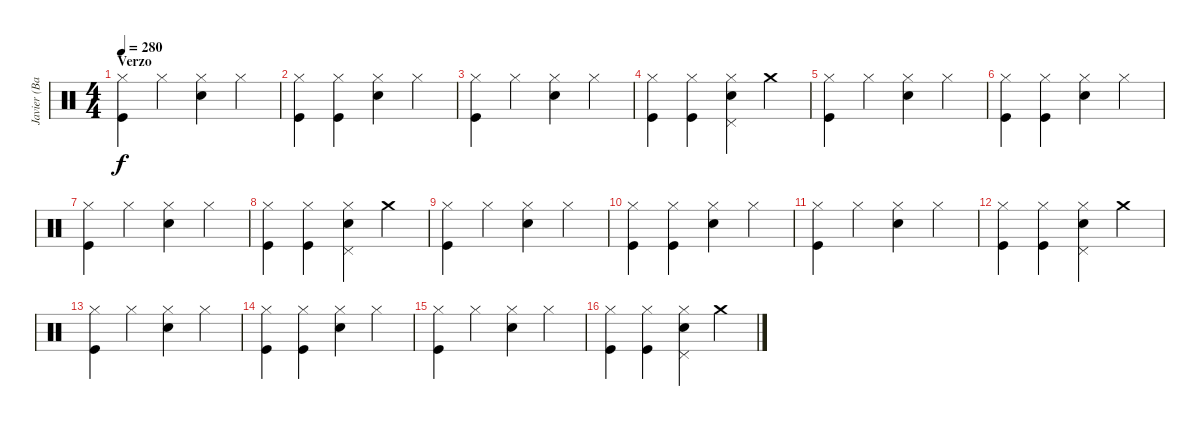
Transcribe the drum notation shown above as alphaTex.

\track ("Javier (Bateria)" "Javier (Ba") {instrument percussion}
\staff {score}
\articulation defaults
\ts (4 4)
\section ("" "Verzo")
\tempo 280
\clef neutral
\ks c
("Hi-Hat (closed)" "Kick (hit)").4{dy f} "Hi-Hat (closed)".4 ("Hi-Hat (closed)" "Snare (hit) 2").4 "Hi-Hat (closed)".4 |
("Hi-Hat (closed)" "Kick (hit)").4 ("Hi-Hat (closed)" "Kick (hit)").4 ("Hi-Hat (closed)" "Snare (hit) 2").4 "Hi-Hat (closed)".4 |
("Hi-Hat (closed)" "Kick (hit)").4 "Hi-Hat (closed)".4 ("Hi-Hat (closed)" "Snare (hit) 2").4 "Hi-Hat (closed)".4 |
("Hi-Hat (closed)" "Kick (hit)").4 ("Hi-Hat (closed)" "Kick (hit)").4 ("Hi-Hat (closed)" "Pedal Hi-Hat (hit)" "Snare (hit) 2").4 "Crash medium (hit)".4 |
("Hi-Hat (closed)" "Kick (hit)").4 "Hi-Hat (closed)".4 ("Hi-Hat (closed)" "Snare (hit) 2").4 "Hi-Hat (closed)".4 |
("Hi-Hat (closed)" "Kick (hit)").4 ("Hi-Hat (closed)" "Kick (hit)").4 ("Hi-Hat (closed)" "Snare (hit) 2").4 "Hi-Hat (closed)".4 |
("Hi-Hat (closed)" "Kick (hit)").4 "Hi-Hat (closed)".4 ("Hi-Hat (closed)" "Snare (hit) 2").4 "Hi-Hat (closed)".4 |
("Hi-Hat (closed)" "Kick (hit)").4 ("Hi-Hat (closed)" "Kick (hit)").4 ("Hi-Hat (closed)" "Pedal Hi-Hat (hit)" "Snare (hit) 2").4 "Crash medium (hit)".4 |
("Hi-Hat (closed)" "Kick (hit)").4 "Hi-Hat (closed)".4 ("Hi-Hat (closed)" "Snare (hit) 2").4 "Hi-Hat (closed)".4 |
("Hi-Hat (closed)" "Kick (hit)").4 ("Hi-Hat (closed)" "Kick (hit)").4 ("Hi-Hat (closed)" "Snare (hit) 2").4 "Hi-Hat (closed)".4 |
("Hi-Hat (closed)" "Kick (hit)").4 "Hi-Hat (closed)".4 ("Hi-Hat (closed)" "Snare (hit) 2").4 "Hi-Hat (closed)".4 |
("Hi-Hat (closed)" "Kick (hit)").4 ("Hi-Hat (closed)" "Kick (hit)").4 ("Hi-Hat (closed)" "Pedal Hi-Hat (hit)" "Snare (hit) 2").4 "Crash medium (hit)".4 |
("Hi-Hat (closed)" "Kick (hit)").4 "Hi-Hat (closed)".4 ("Hi-Hat (closed)" "Snare (hit) 2").4 "Hi-Hat (closed)".4 |
("Hi-Hat (closed)" "Kick (hit)").4 ("Hi-Hat (closed)" "Kick (hit)").4 ("Hi-Hat (closed)" "Snare (hit) 2").4 "Hi-Hat (closed)".4 |
("Hi-Hat (closed)" "Kick (hit)").4 "Hi-Hat (closed)".4 ("Hi-Hat (closed)" "Snare (hit) 2").4 "Hi-Hat (closed)".4 |
("Hi-Hat (closed)" "Kick (hit)").4 ("Hi-Hat (closed)" "Kick (hit)").4 ("Hi-Hat (closed)" "Pedal Hi-Hat (hit)" "Snare (hit) 2").4 "Crash medium (hit)".4
